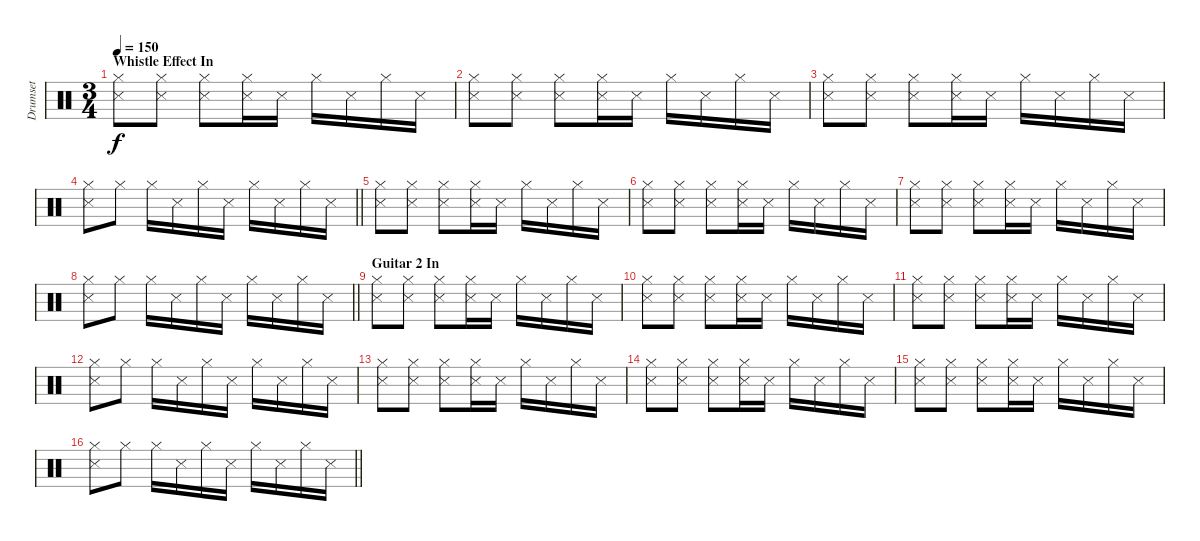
\track ("Drumset" "Drumset") {instrument percussion}
\staff {score}
\articulation defaults
\ts (3 4)
\section ("" "Whistle Effect In")
\tempo 150
\clef neutral
\ks c
("Hi-Hat (closed)" "Snare (side stick) 3").8{dy f} ("Hi-Hat (closed)" "Snare (side stick) 3").8 ("Hi-Hat (closed)" "Snare (side stick) 3").8 ("Hi-Hat (closed)" "Snare (side stick) 3").16 "Snare (side stick) 3".16 "Hi-Hat (closed)".16 "Snare (side stick) 3".16 "Hi-Hat (closed)".16 "Snare (side stick) 3".16 |
("Hi-Hat (closed)" "Snare (side stick) 3").8 ("Hi-Hat (closed)" "Snare (side stick) 3").8 ("Hi-Hat (closed)" "Snare (side stick) 3").8 ("Hi-Hat (closed)" "Snare (side stick) 3").16 "Snare (side stick) 3".16 "Hi-Hat (closed)".16 "Snare (side stick) 3".16 "Hi-Hat (closed)".16 "Snare (side stick) 3".16 |
("Hi-Hat (closed)" "Snare (side stick) 3").8 ("Hi-Hat (closed)" "Snare (side stick) 3").8 ("Hi-Hat (closed)" "Snare (side stick) 3").8 ("Hi-Hat (closed)" "Snare (side stick) 3").16 "Snare (side stick) 3".16 "Hi-Hat (closed)".16 "Snare (side stick) 3".16 "Hi-Hat (closed)".16 "Snare (side stick) 3".16 |
\barLineRight lightlight
("Hi-Hat (closed)" "Snare (side stick) 3").8 "Hi-Hat (closed)".8 "Hi-Hat (closed)".16 "Snare (side stick) 3".16 "Hi-Hat (closed)".16 "Snare (side stick) 3".16 "Hi-Hat (closed)".16 "Snare (side stick) 3".16 "Hi-Hat (closed)".16 "Snare (side stick) 3".16 |
("Hi-Hat (closed)" "Snare (side stick) 3").8 ("Hi-Hat (closed)" "Snare (side stick) 3").8 ("Hi-Hat (closed)" "Snare (side stick) 3").8 ("Hi-Hat (closed)" "Snare (side stick) 3").16 "Snare (side stick) 3".16 "Hi-Hat (closed)".16 "Snare (side stick) 3".16 "Hi-Hat (closed)".16 "Snare (side stick) 3".16 |
("Hi-Hat (closed)" "Snare (side stick) 3").8 ("Hi-Hat (closed)" "Snare (side stick) 3").8 ("Hi-Hat (closed)" "Snare (side stick) 3").8 ("Hi-Hat (closed)" "Snare (side stick) 3").16 "Snare (side stick) 3".16 "Hi-Hat (closed)".16 "Snare (side stick) 3".16 "Hi-Hat (closed)".16 "Snare (side stick) 3".16 |
("Hi-Hat (closed)" "Snare (side stick) 3").8 ("Hi-Hat (closed)" "Snare (side stick) 3").8 ("Hi-Hat (closed)" "Snare (side stick) 3").8 ("Hi-Hat (closed)" "Snare (side stick) 3").16 "Snare (side stick) 3".16 "Hi-Hat (closed)".16 "Snare (side stick) 3".16 "Hi-Hat (closed)".16 "Snare (side stick) 3".16 |
\barLineRight lightlight
("Hi-Hat (closed)" "Snare (side stick) 3").8 "Hi-Hat (closed)".8 "Hi-Hat (closed)".16 "Snare (side stick) 3".16 "Hi-Hat (closed)".16 "Snare (side stick) 3".16 "Hi-Hat (closed)".16 "Snare (side stick) 3".16 "Hi-Hat (closed)".16 "Snare (side stick) 3".16 |
\section ("" "Guitar 2 In")
("Hi-Hat (closed)" "Snare (side stick) 3").8 ("Hi-Hat (closed)" "Snare (side stick) 3").8 ("Hi-Hat (closed)" "Snare (side stick) 3").8 ("Hi-Hat (closed)" "Snare (side stick) 3").16 "Snare (side stick) 3".16 "Hi-Hat (closed)".16 "Snare (side stick) 3".16 "Hi-Hat (closed)".16 "Snare (side stick) 3".16 |
("Hi-Hat (closed)" "Snare (side stick) 3").8 ("Hi-Hat (closed)" "Snare (side stick) 3").8 ("Hi-Hat (closed)" "Snare (side stick) 3").8 ("Hi-Hat (closed)" "Snare (side stick) 3").16 "Snare (side stick) 3".16 "Hi-Hat (closed)".16 "Snare (side stick) 3".16 "Hi-Hat (closed)".16 "Snare (side stick) 3".16 |
("Hi-Hat (closed)" "Snare (side stick) 3").8 ("Hi-Hat (closed)" "Snare (side stick) 3").8 ("Hi-Hat (closed)" "Snare (side stick) 3").8 ("Hi-Hat (closed)" "Snare (side stick) 3").16 "Snare (side stick) 3".16 "Hi-Hat (closed)".16 "Snare (side stick) 3".16 "Hi-Hat (closed)".16 "Snare (side stick) 3".16 |
("Hi-Hat (closed)" "Snare (side stick) 3").8 "Hi-Hat (closed)".8 "Hi-Hat (closed)".16 "Snare (side stick) 3".16 "Hi-Hat (closed)".16 "Snare (side stick) 3".16 "Hi-Hat (closed)".16 "Snare (side stick) 3".16 "Hi-Hat (closed)".16 "Snare (side stick) 3".16 |
("Hi-Hat (closed)" "Snare (side stick) 3").8 ("Hi-Hat (closed)" "Snare (side stick) 3").8 ("Hi-Hat (closed)" "Snare (side stick) 3").8 ("Hi-Hat (closed)" "Snare (side stick) 3").16 "Snare (side stick) 3".16 "Hi-Hat (closed)".16 "Snare (side stick) 3".16 "Hi-Hat (closed)".16 "Snare (side stick) 3".16 |
("Hi-Hat (closed)" "Snare (side stick) 3").8 ("Hi-Hat (closed)" "Snare (side stick) 3").8 ("Hi-Hat (closed)" "Snare (side stick) 3").8 ("Hi-Hat (closed)" "Snare (side stick) 3").16 "Snare (side stick) 3".16 "Hi-Hat (closed)".16 "Snare (side stick) 3".16 "Hi-Hat (closed)".16 "Snare (side stick) 3".16 |
("Hi-Hat (closed)" "Snare (side stick) 3").8 ("Hi-Hat (closed)" "Snare (side stick) 3").8 ("Hi-Hat (closed)" "Snare (side stick) 3").8 ("Hi-Hat (closed)" "Snare (side stick) 3").16 "Snare (side stick) 3".16 "Hi-Hat (closed)".16 "Snare (side stick) 3".16 "Hi-Hat (closed)".16 "Snare (side stick) 3".16 |
\barLineRight lightlight
("Hi-Hat (closed)" "Snare (side stick) 3").8 "Hi-Hat (closed)".8 "Hi-Hat (closed)".16 "Snare (side stick) 3".16 "Hi-Hat (closed)".16 "Snare (side stick) 3".16 "Hi-Hat (closed)".16 "Snare (side stick) 3".16 "Hi-Hat (closed)".16 "Snare (side stick) 3".16
